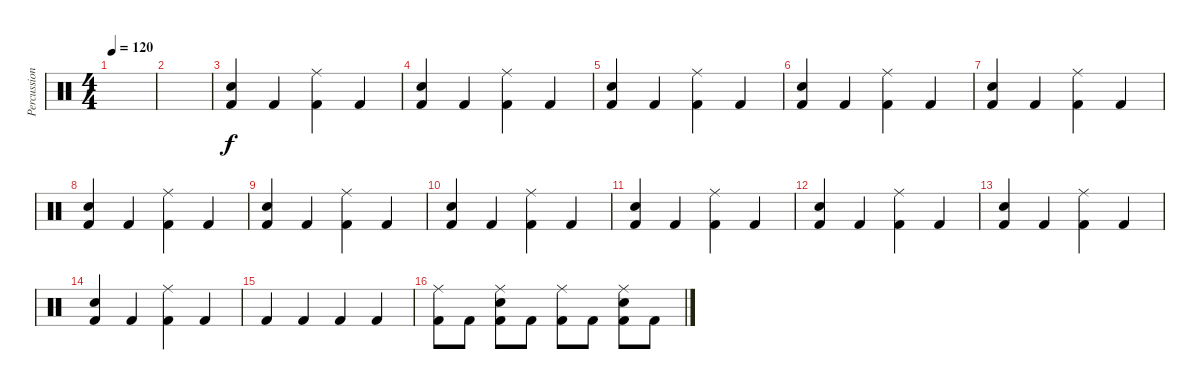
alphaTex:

\track ("Percussions" "Percussion") {instrument percussion}
\staff {score}
\articulation defaults
\ts (4 4)
\tempo 120
\clef neutral
\ks c
|
|
("Electric Snare (hit)" "Kick (hit) 2").4 "Kick (hit) 2".4 ("Ride (middle)" "Kick (hit) 2").4 "Kick (hit) 2".4 |
("Electric Snare (hit)" "Kick (hit) 2").4 "Kick (hit) 2".4 ("Ride (middle)" "Kick (hit) 2").4 "Kick (hit) 2".4 |
("Electric Snare (hit)" "Kick (hit) 2").4 "Kick (hit) 2".4 ("Ride (middle)" "Kick (hit) 2").4 "Kick (hit) 2".4 |
("Electric Snare (hit)" "Kick (hit) 2").4 "Kick (hit) 2".4 ("Ride (middle)" "Kick (hit) 2").4 "Kick (hit) 2".4 |
("Electric Snare (hit)" "Kick (hit) 2").4 "Kick (hit) 2".4 ("Ride (middle)" "Kick (hit) 2").4 "Kick (hit) 2".4 |
("Electric Snare (hit)" "Kick (hit) 2").4 "Kick (hit) 2".4 ("Ride (middle)" "Kick (hit) 2").4 "Kick (hit) 2".4 |
("Electric Snare (hit)" "Kick (hit) 2").4 "Kick (hit) 2".4 ("Ride (middle)" "Kick (hit) 2").4 "Kick (hit) 2".4 |
("Electric Snare (hit)" "Kick (hit) 2").4 "Kick (hit) 2".4 ("Ride (middle)" "Kick (hit) 2").4 "Kick (hit) 2".4 |
("Electric Snare (hit)" "Kick (hit) 2").4 "Kick (hit) 2".4 ("Ride (middle)" "Kick (hit) 2").4 "Kick (hit) 2".4 |
("Electric Snare (hit)" "Kick (hit) 2").4 "Kick (hit) 2".4 ("Ride (middle)" "Kick (hit) 2").4 "Kick (hit) 2".4 |
("Electric Snare (hit)" "Kick (hit) 2").4 "Kick (hit) 2".4 ("Ride (middle)" "Kick (hit) 2").4 "Kick (hit) 2".4 |
("Electric Snare (hit)" "Kick (hit) 2").4 "Kick (hit) 2".4 ("Ride (middle)" "Kick (hit) 2").4 "Kick (hit) 2".4 |
"Kick (hit) 2".4 "Kick (hit) 2".4 "Kick (hit) 2".4 "Kick (hit) 2".4 |
("Ride (middle)" "Kick (hit) 2").8 "Kick (hit) 2".8 ("Electric Snare (hit)" "Ride (middle)" "Kick (hit) 2").8 "Kick (hit) 2".8 ("Ride (middle)" "Kick (hit) 2").8 "Kick (hit) 2".8 ("Electric Snare (hit)" "Ride (middle)" "Kick (hit) 2").8 "Kick (hit) 2".8
